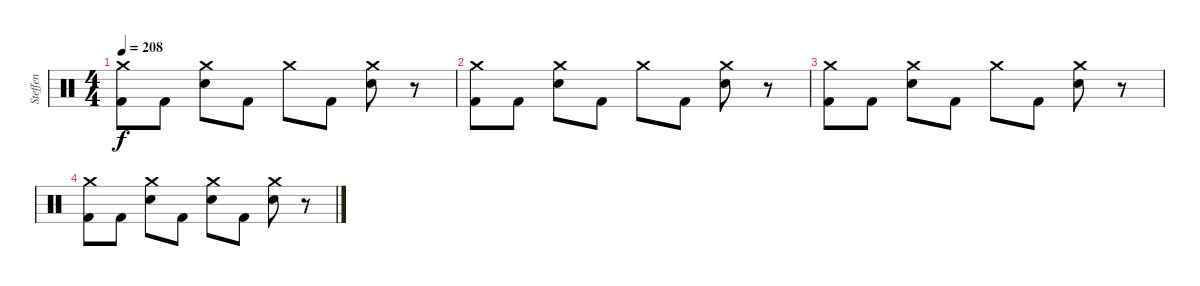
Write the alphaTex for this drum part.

\track ("Steffen" "Steffen") {instrument percussion}
\staff {score}
\articulation defaults
\ts (4 4)
\tempo 208
\clef neutral
\ks c
("Crash medium (hit)" "Kick (hit) 2").8{dy f} "Kick (hit) 2".8 ("Crash medium (hit)" "Snare (hit) 2").8 "Kick (hit) 2".8 "Crash medium (hit)".8 "Kick (hit) 2".8 ("Crash medium (hit)" "Snare (hit) 2").8 r.8 |
("Crash medium (hit)" "Kick (hit) 2").8 "Kick (hit) 2".8 ("Crash medium (hit)" "Snare (hit) 2").8 "Kick (hit) 2".8 "Crash medium (hit)".8 "Kick (hit) 2".8 ("Crash medium (hit)" "Snare (hit) 2").8 r.8 |
("Crash medium (hit)" "Kick (hit) 2").8 "Kick (hit) 2".8 ("Crash medium (hit)" "Snare (hit) 2").8 "Kick (hit) 2".8 "Crash medium (hit)".8 "Kick (hit) 2".8 ("Crash medium (hit)" "Snare (hit) 2").8 r.8 |
("Crash medium (hit)" "Kick (hit) 2").8 "Kick (hit) 2".8 ("Crash medium (hit)" "Snare (hit) 2").8 "Kick (hit) 2".8 ("Crash medium (hit)" "Snare (hit) 2").8 "Kick (hit) 2".8 ("Crash medium (hit)" "Snare (hit) 2").8 r.8
